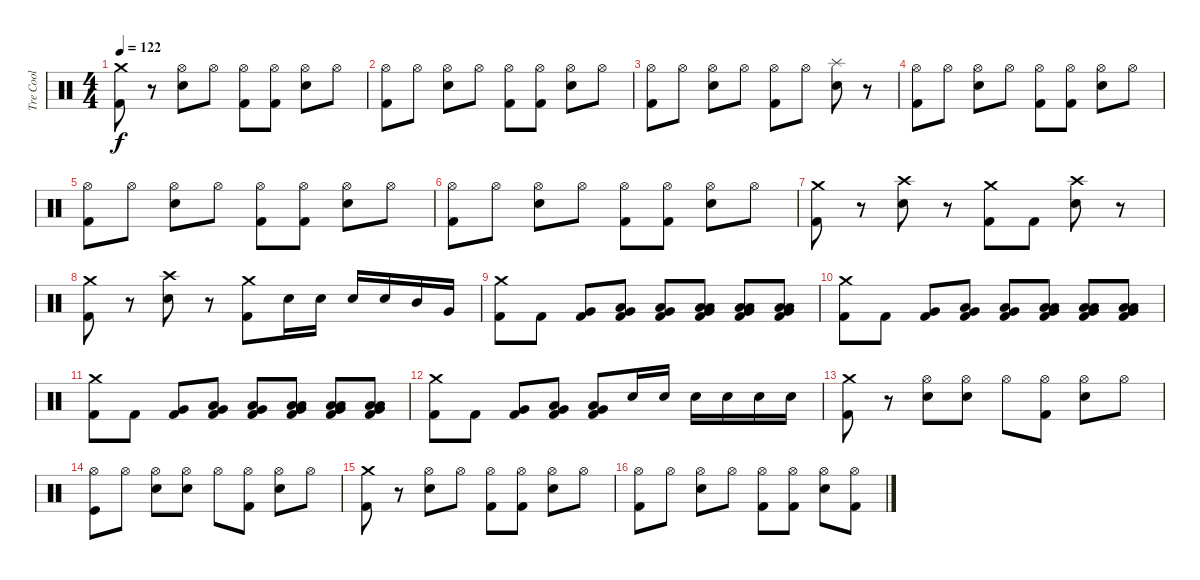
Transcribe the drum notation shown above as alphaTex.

\track ("Tre Cool" "Tre Cool") {instrument percussion}
\staff {score}
\articulation defaults
\ts (4 4)
\tempo 122
\clef neutral
\ks c
("Crash medium (hit)" "Kick (hit) 2").8{dy f} r.8 ("Hi-Hat (open)" "Electric Snare (hit)").8 "Hi-Hat (open)".8 ("Hi-Hat (open)" "Kick (hit) 2").8 ("Hi-Hat (open)" "Kick (hit) 2").8 ("Hi-Hat (open)" "Electric Snare (hit)").8 "Hi-Hat (open)".8 |
("Hi-Hat (open)" "Kick (hit) 2").8 "Hi-Hat (open)".8 ("Hi-Hat (open)" "Electric Snare (hit)").8 "Hi-Hat (open)".8 ("Hi-Hat (open)" "Kick (hit) 2").8 ("Hi-Hat (open)" "Kick (hit) 2").8 ("Hi-Hat (open)" "Electric Snare (hit)").8 "Hi-Hat (open)".8 |
("Hi-Hat (open)" "Kick (hit) 2").8 "Hi-Hat (open)".8 ("Hi-Hat (open)" "Electric Snare (hit)").8 "Hi-Hat (open)".8 ("Hi-Hat (open)" "Kick (hit) 2").8 "Hi-Hat (open)".8 ("Splash (hit)" "Electric Snare (hit)").8 r.8 |
("Hi-Hat (open)" "Kick (hit) 2").8 "Hi-Hat (open)".8 ("Hi-Hat (open)" "Electric Snare (hit)").8 "Hi-Hat (open)".8 ("Hi-Hat (open)" "Kick (hit) 2").8 ("Hi-Hat (open)" "Kick (hit) 2").8 ("Hi-Hat (open)" "Electric Snare (hit)").8 "Hi-Hat (open)".8 |
("Hi-Hat (open)" "Kick (hit) 2").8 "Hi-Hat (open)".8 ("Hi-Hat (open)" "Electric Snare (hit)").8 "Hi-Hat (open)".8 ("Hi-Hat (open)" "Kick (hit) 2").8 ("Hi-Hat (open)" "Kick (hit) 2").8 ("Hi-Hat (open)" "Electric Snare (hit)").8 "Hi-Hat (open)".8 |
("Hi-Hat (open)" "Kick (hit) 2").8 "Hi-Hat (open)".8 ("Hi-Hat (open)" "Electric Snare (hit)").8 "Hi-Hat (open)".8 ("Hi-Hat (open)" "Kick (hit) 2").8 ("Hi-Hat (open)" "Kick (hit) 2").8 ("Hi-Hat (open)" "Electric Snare (hit)").8 "Hi-Hat (open)".8 |
("Crash medium (hit)" "Kick (hit) 2").8 r.8 ("Crash high (hit)" "Electric Snare (hit)").8 r.8 ("Crash medium (hit)" "Kick (hit) 2").8 "Kick (hit) 2".8 ("Crash high (hit)" "Electric Snare (hit)").8 r.8 |
("Crash medium (hit)" "Kick (hit) 2").8 r.8 ("Crash high (hit)" "Electric Snare (hit)").8 r.8 ("Crash medium (hit)" "Kick (hit) 2").8 "Electric Snare (hit)".16 "Electric Snare (hit)".16 "Electric Snare (hit)".16 "Electric Snare (hit)".16 "Mid Tom (hit)".16 "Very Low Tom (hit)".16 |
("Crash medium (hit)" "Kick (hit) 2").8 "Kick (hit) 2".8 ("Very Low Tom (hit)" "Kick (hit) 2").8 ("Low Tom (hit)" "Very Low Tom (hit)" "Kick (hit) 2").8 ("Low Tom (hit)" "Very Low Tom (hit)" "Kick (hit) 2").8 ("Low Floor Tom (hit)" "Very Low Tom (hit)" "Low Tom (hit)" "Kick (hit) 2").8 ("Low Floor Tom (hit)" "Very Low Tom (hit)" "Low Tom (hit)" "Kick (hit) 2").8 ("Low Floor Tom (hit)" "Very Low Tom (hit)" "Low Tom (hit)" "Kick (hit) 2").8 |
("Crash medium (hit)" "Kick (hit) 2").8 "Kick (hit) 2".8 ("Very Low Tom (hit)" "Kick (hit) 2").8 ("Low Tom (hit)" "Very Low Tom (hit)" "Kick (hit) 2").8 ("Low Tom (hit)" "Very Low Tom (hit)" "Kick (hit) 2").8 ("Low Floor Tom (hit)" "Very Low Tom (hit)" "Low Tom (hit)" "Kick (hit) 2").8 ("Low Floor Tom (hit)" "Very Low Tom (hit)" "Low Tom (hit)" "Kick (hit) 2").8 ("Low Floor Tom (hit)" "Very Low Tom (hit)" "Low Tom (hit)" "Kick (hit) 2").8 |
("Crash medium (hit)" "Kick (hit) 2").8 "Kick (hit) 2".8 ("Very Low Tom (hit)" "Kick (hit) 2").8 ("Low Tom (hit)" "Very Low Tom (hit)" "Kick (hit) 2").8 ("Low Tom (hit)" "Very Low Tom (hit)" "Kick (hit) 2").8 ("Low Floor Tom (hit)" "Very Low Tom (hit)" "Low Tom (hit)" "Kick (hit) 2").8 ("Low Floor Tom (hit)" "Very Low Tom (hit)" "Low Tom (hit)" "Kick (hit) 2").8 ("Low Floor Tom (hit)" "Very Low Tom (hit)" "Low Tom (hit)" "Kick (hit) 2").8 |
("Crash medium (hit)" "Kick (hit) 2").8 "Kick (hit) 2".8 ("Very Low Tom (hit)" "Kick (hit) 2").8 ("Low Tom (hit)" "Very Low Tom (hit)" "Kick (hit) 2").8 ("Low Tom (hit)" "Very Low Tom (hit)" "Kick (hit) 2").8 "Electric Snare (hit)".16 "Electric Snare (hit)".16 "Electric Snare (hit)".16 "Electric Snare (hit)".16 "Electric Snare (hit)".16 "Electric Snare (hit)".16 |
("Kick (hit) 2" "Crash medium (hit)").8 r.8 ("Hi-Hat (open)" "Electric Snare (hit)").8 ("Hi-Hat (open)" "Electric Snare (hit)").8 "Hi-Hat (open)".8 ("Hi-Hat (open)" "Kick (hit) 2").8 ("Hi-Hat (open)" "Electric Snare (hit)").8 "Hi-Hat (open)".8 |
("Hi-Hat (open)" "Kick (hit)").8 "Hi-Hat (open)".8 ("Hi-Hat (open)" "Electric Snare (hit)").8 ("Hi-Hat (open)" "Electric Snare (hit)").8 "Hi-Hat (open)".8 ("Hi-Hat (open)" "Kick (hit) 2").8 ("Hi-Hat (open)" "Electric Snare (hit)").8 "Hi-Hat (open)".8 |
("Crash medium (hit)" "Kick (hit) 2").8 r.8 ("Hi-Hat (open)" "Electric Snare (hit)").8 "Hi-Hat (open)".8 ("Hi-Hat (open)" "Kick (hit) 2").8 ("Hi-Hat (open)" "Kick (hit) 2").8 ("Hi-Hat (open)" "Electric Snare (hit)").8 "Hi-Hat (open)".8 |
("Hi-Hat (open)" "Kick (hit) 2").8 "Hi-Hat (open)".8 ("Hi-Hat (open)" "Electric Snare (hit)").8 "Hi-Hat (open)".8 ("Kick (hit) 2" "Hi-Hat (open)").8 ("Kick (hit) 2" "Hi-Hat (open)").8 ("Electric Snare (hit)" "Hi-Hat (open)").8 ("Kick (hit) 2" "Hi-Hat (open)").8
